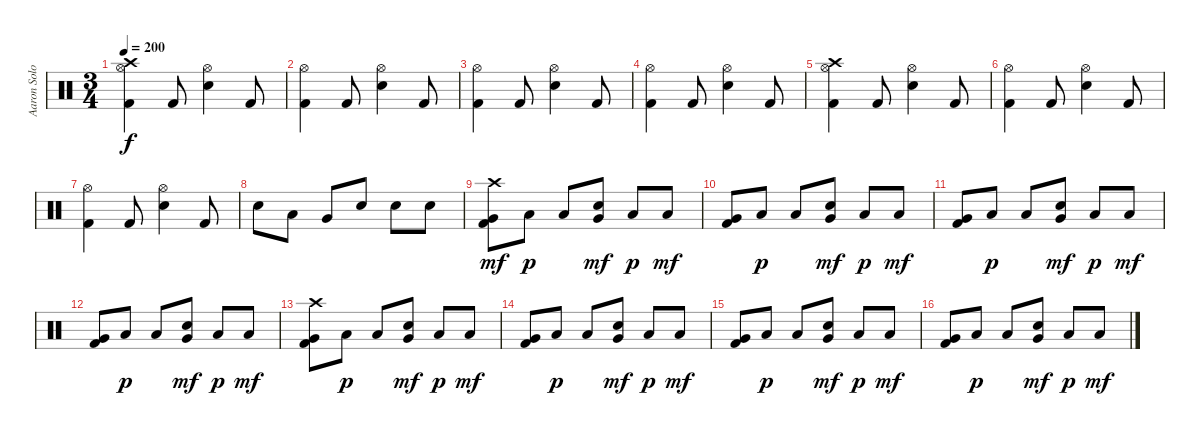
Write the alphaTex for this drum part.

\track ("Aaron Solowoniuk" "Aaron Solo") {instrument percussion}
\staff {score}
\articulation defaults
\ts (3 4)
\tempo 200
\clef neutral
\ks c
("Crash high (hit)" "Hi-Hat (open)" "Kick (hit) 2").4{dy f} "Kick (hit) 2".8 ("Hi-Hat (open)" "Snare (hit) 2").4 "Kick (hit) 2".8 |
("Hi-Hat (open)" "Kick (hit) 2").4 "Kick (hit) 2".8 ("Hi-Hat (open)" "Snare (hit) 2").4 "Kick (hit) 2".8 |
("Hi-Hat (open)" "Kick (hit) 2").4 "Kick (hit) 2".8 ("Hi-Hat (open)" "Snare (hit) 2").4 "Kick (hit) 2".8 |
("Hi-Hat (open)" "Kick (hit) 2").4 "Kick (hit) 2".8 ("Hi-Hat (open)" "Snare (hit) 2").4 "Kick (hit) 2".8 |
("Crash high (hit)" "Hi-Hat (open)" "Kick (hit) 2").4 "Kick (hit) 2".8 ("Hi-Hat (open)" "Snare (hit) 2").4 "Kick (hit) 2".8 |
("Hi-Hat (open)" "Kick (hit) 2").4 "Kick (hit) 2".8 ("Hi-Hat (open)" "Snare (hit) 2").4 "Kick (hit) 2".8 |
("Hi-Hat (open)" "Kick (hit) 2").4 "Kick (hit) 2".8 ("Hi-Hat (open)" "Snare (hit) 2").4 "Kick (hit) 2".8 |
"Snare (hit) 2".8 "Low Tom (hit)".8 "Very Low Tom (hit)".8 "Snare (hit) 2".8 "Snare (hit) 2".8 "Snare (hit) 2".8 |
("Crash high (hit)" "Very Low Tom (hit)" "Kick (hit) 2").8{dy mf} "Low Floor Tom (hit)".8{dy p} "Low Floor Tom (hit)".8 ("Very Low Tom (hit)" "Snare (hit) 2").8{dy mf} "Low Floor Tom (hit)".8{dy p} "Low Floor Tom (hit)".8{dy mf} |
("Very Low Tom (hit)" "Kick (hit) 2").8 "Low Floor Tom (hit)".8{dy p} "Low Floor Tom (hit)".8 ("Very Low Tom (hit)" "Snare (hit) 2").8{dy mf} "Low Floor Tom (hit)".8{dy p} "Low Floor Tom (hit)".8{dy mf} |
("Very Low Tom (hit)" "Kick (hit) 2").8 "Low Floor Tom (hit)".8{dy p} "Low Floor Tom (hit)".8 ("Very Low Tom (hit)" "Snare (hit) 2").8{dy mf} "Low Floor Tom (hit)".8{dy p} "Low Floor Tom (hit)".8{dy mf} |
("Very Low Tom (hit)" "Kick (hit) 2").8 "Low Floor Tom (hit)".8{dy p} "Low Floor Tom (hit)".8 ("Very Low Tom (hit)" "Snare (hit) 2").8{dy mf} "Low Floor Tom (hit)".8{dy p} "Low Floor Tom (hit)".8{dy mf} |
("Crash high (hit)" "Very Low Tom (hit)" "Kick (hit) 2").8 "Low Floor Tom (hit)".8{dy p} "Low Floor Tom (hit)".8 ("Very Low Tom (hit)" "Snare (hit) 2").8{dy mf} "Low Floor Tom (hit)".8{dy p} "Low Floor Tom (hit)".8{dy mf} |
("Very Low Tom (hit)" "Kick (hit) 2").8 "Low Floor Tom (hit)".8{dy p} "Low Floor Tom (hit)".8 ("Very Low Tom (hit)" "Snare (hit) 2").8{dy mf} "Low Floor Tom (hit)".8{dy p} "Low Floor Tom (hit)".8{dy mf} |
("Very Low Tom (hit)" "Kick (hit) 2").8 "Low Floor Tom (hit)".8{dy p} "Low Floor Tom (hit)".8 ("Very Low Tom (hit)" "Snare (hit) 2").8{dy mf} "Low Floor Tom (hit)".8{dy p} "Low Floor Tom (hit)".8{dy mf} |
("Very Low Tom (hit)" "Kick (hit) 2").8 "Low Floor Tom (hit)".8{dy p} "Low Floor Tom (hit)".8 ("Very Low Tom (hit)" "Snare (hit) 2").8{dy mf} "Low Floor Tom (hit)".8{dy p} "Low Floor Tom (hit)".8{dy mf}
